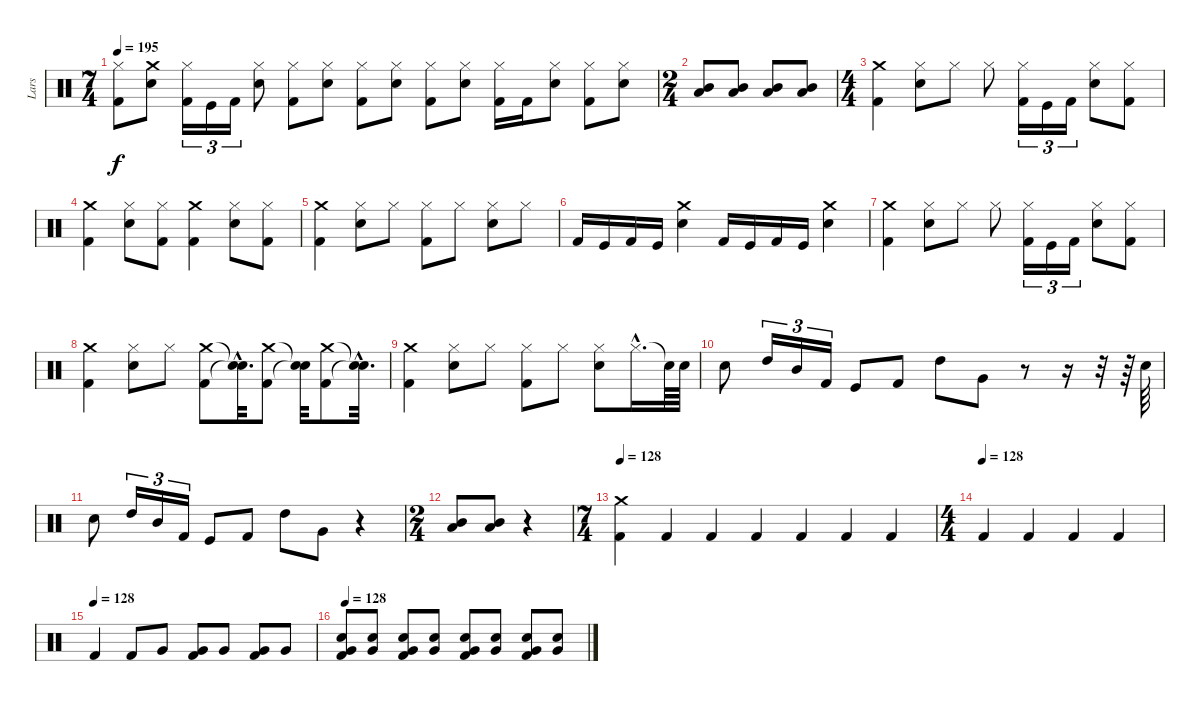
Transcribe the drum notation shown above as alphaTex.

\track ("Lars" "Lars") {instrument percussion}
\staff {score}
\articulation defaults
\ts (7 4)
\tempo 195
\clef neutral
\ks c
("Kick (hit) 2" "Hi-Hat (closed)").8{dy f} ("Crash medium (hit)" "Snare (hit) 2").8 ("Kick (hit) 2" "Hi-Hat (closed)").16{tu (3 2)} "Kick (hit)".16{tu (3 2)} "Kick (hit) 2".16{tu (3 2)} ("Snare (hit) 2" "Hi-Hat (closed)").8 ("Hi-Hat (closed)" "Kick (hit) 2").8 ("Hi-Hat (closed)" "Snare (hit) 2").8 ("Hi-Hat (closed)" "Kick (hit) 2").8 ("Snare (hit) 2" "Hi-Hat (closed)").8 ("Hi-Hat (closed)" "Kick (hit) 2").8 ("Snare (hit) 2" "Hi-Hat (closed)").8 ("Hi-Hat (closed)" "Kick (hit) 2").16 "Kick (hit) 2".16 ("Snare (hit) 2" "Hi-Hat (closed)").8 ("Hi-Hat (closed)" "Kick (hit) 2").8 ("Snare (hit) 2" "Hi-Hat (closed)").8 |
\ts (2 4)
("Mid Tom (hit)" "Low Tom (hit)").8 ("Mid Tom (hit)" "Low Tom (hit)").8 ("Mid Tom (hit)" "Low Tom (hit)").8 ("Mid Tom (hit)" "Low Tom (hit)").8 |
\ts (4 4)
("Kick (hit) 2" "Crash medium (hit)").4 ("Snare (hit) 2" "Hi-Hat (closed)").8 "Hi-Hat (closed)".8 "Hi-Hat (closed)".8 ("Kick (hit) 2" "Hi-Hat (closed)").16{tu (3 2)} "Kick (hit)".16{tu (3 2)} "Kick (hit) 2".16{tu (3 2)} ("Snare (hit) 2" "Hi-Hat (closed)").8 ("Kick (hit) 2" "Hi-Hat (closed)").8 |
("Kick (hit) 2" "Crash medium (hit)").4 ("Hi-Hat (closed)" "Snare (hit) 2").8 ("Kick (hit) 2" "Hi-Hat (closed)").8 ("Crash medium (hit)" "Kick (hit) 2").4 ("Hi-Hat (closed)" "Snare (hit) 2").8 ("Kick (hit) 2" "Hi-Hat (closed)").8 |
("Kick (hit) 2" "Crash medium (hit)").4 ("Hi-Hat (closed)" "Snare (hit) 2").8 "Hi-Hat (closed)".8 ("Hi-Hat (closed)" "Kick (hit) 2").8 "Hi-Hat (closed)".8 ("Snare (hit) 2" "Hi-Hat (closed)").8 "Hi-Hat (closed)".8 |
"Kick (hit) 2".16 "Kick (hit)".16 "Kick (hit) 2".16 "Kick (hit)".16 ("Crash medium (hit)" "Snare (hit) 2").4 "Kick (hit) 2".16 "Kick (hit)".16 "Kick (hit) 2".16 "Kick (hit)".16 ("Snare (hit) 2" "Crash medium (hit)").4 |
("Kick (hit) 2" "Crash medium (hit)").4 ("Snare (hit) 2" "Hi-Hat (closed)").8 "Hi-Hat (closed)".8 "Hi-Hat (closed)".8 ("Kick (hit) 2" "Hi-Hat (closed)").16{tu (3 2)} "Kick (hit)".16{tu (3 2)} "Kick (hit) 2".16{tu (3 2)} ("Snare (hit) 2" "Hi-Hat (closed)").8 ("Kick (hit) 2" "Hi-Hat (closed)").8 |
("Kick (hit) 2" "Crash medium (hit)").4 ("Hi-Hat (closed)" "Snare (hit) 2").8 "Hi-Hat (closed)".8 ("Kick (hit) 2" "Crash medium (hit)").8 ("Snare (hit)"{hac t} "Snare (hit)"{hac t}).32{d} ("Kick (hit) 2" "Crash medium (hit)").8 ("Snare (hit)"{t} "Snare (hit)"{t}).32 ("Kick (hit) 2" "Crash medium (hit)").8 ("Snare (hit)"{hac t} "Snare (hit)"{hac t}).32{d} |
("Kick (hit) 2" "Crash medium (hit)").4 ("Hi-Hat (closed)" "Snare (hit) 2").8 "Hi-Hat (closed)".8 ("Hi-Hat (closed)" "Kick (hit) 2").8 "Hi-Hat (closed)".8 ("Snare (hit) 2" "Hi-Hat (closed)").8 "Hi-Hat (closed)"{hac}.16{d} "Snare (hit)"{t}.64 "Snare (hit) 2".64 |
"Snare (hit) 2".8 "High Tom (hit)".16{tu (3 2)} "Mid Tom (hit)".16{tu (3 2)} "Kick (hit) 2".16{tu (3 2)} "Kick (hit)".8 "Kick (hit) 2".8 "High Tom (hit)".8 "Very Low Tom (hit)".8 r.8 r.16 r.32 r.64 "Snare (hit) 2".64 |
"Snare (hit) 2".8 "High Tom (hit)".16{tu (3 2)} "Mid Tom (hit)".16{tu (3 2)} "Kick (hit) 2".16{tu (3 2)} "Kick (hit)".8 "Kick (hit) 2".8 "High Tom (hit)".8 "Very Low Tom (hit)".8 r.4 |
\ts (2 4)
("Mid Tom (hit)" "Low Tom (hit)").8 ("Mid Tom (hit)" "Low Tom (hit)").8 r.4 |
\ts (7 4)
\tempo 128
("Kick (hit) 2" "Crash medium (hit)").4 "Kick (hit) 2".4 "Kick (hit) 2".4 "Kick (hit) 2".4 "Kick (hit) 2".4 "Kick (hit) 2".4 "Kick (hit) 2".4 |
\ts (4 4)
\tempo (128)
"Kick (hit) 2".4 "Kick (hit) 2".4 "Kick (hit) 2".4 "Kick (hit) 2".4 |
\tempo (128)
"Kick (hit) 2".4 "Kick (hit) 2".8 "Very Low Tom (hit)".8 ("Very Low Tom (hit)" "Kick (hit) 2").8 "Very Low Tom (hit)".8 ("Very Low Tom (hit)" "Kick (hit) 2").8 "Very Low Tom (hit)".8 |
\tempo 128
("Snare (hit) 2" "Very Low Tom (hit)" "Kick (hit) 2").8 ("Snare (hit) 2" "Very Low Tom (hit)").8 ("Snare (hit) 2" "Very Low Tom (hit)" "Kick (hit) 2").8 ("Snare (hit) 2" "Very Low Tom (hit)").8 ("Snare (hit) 2" "Very Low Tom (hit)" "Kick (hit) 2").8 ("Snare (hit) 2" "Very Low Tom (hit)").8 ("Snare (hit) 2" "Very Low Tom (hit)" "Kick (hit) 2").8 ("Snare (hit) 2" "Very Low Tom (hit)").8
